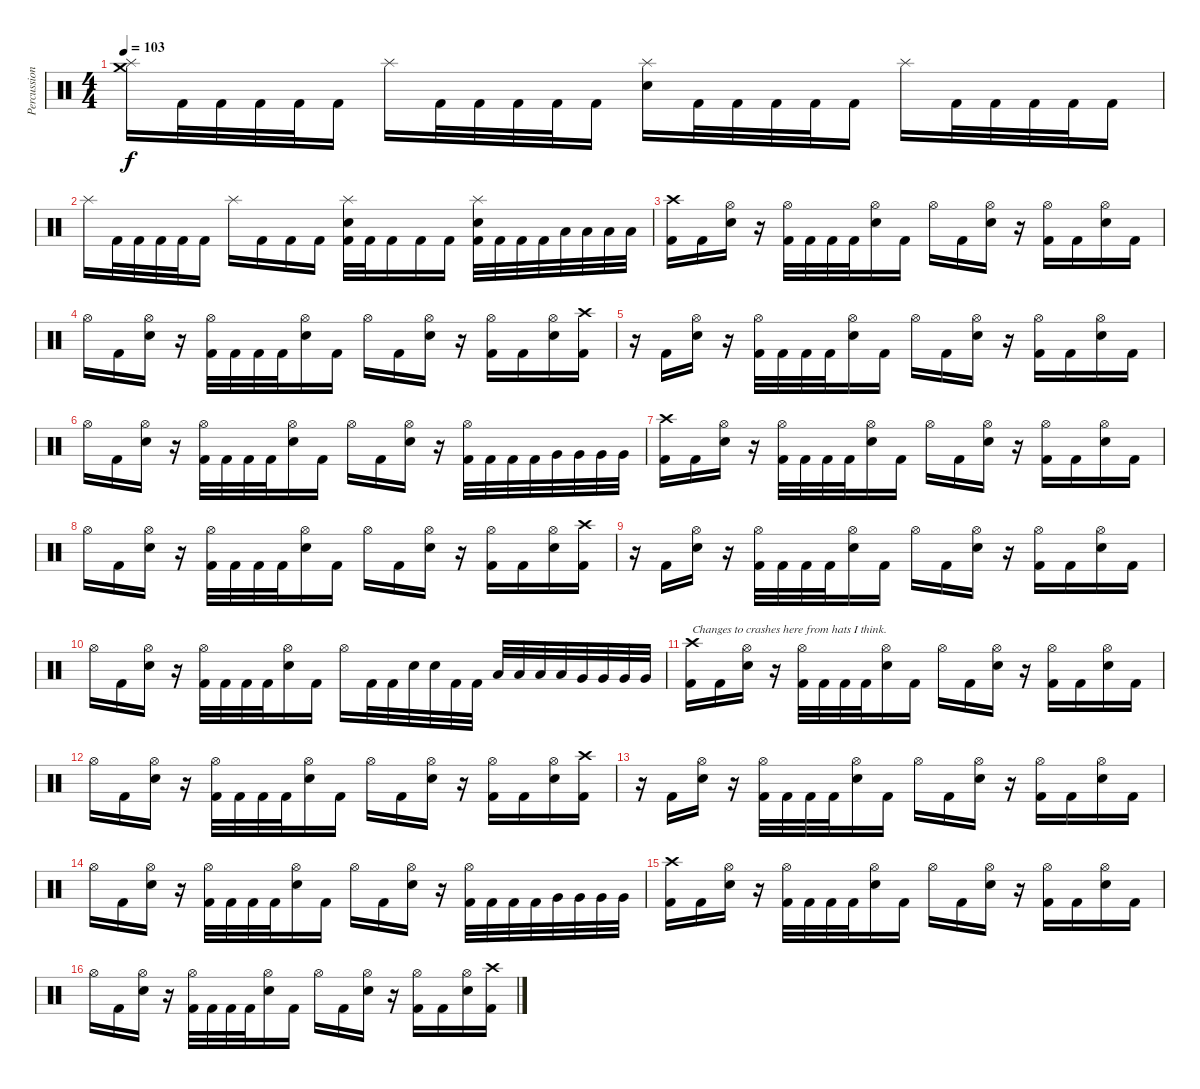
\track ("Percussion" "Percussion") {instrument percussion}
\staff {score}
\articulation defaults
\ts (4 4)
\tempo 103
\clef neutral
\ks c
("Splash (hit)" "Crash medium (hit)").16{dy f} "Kick (hit) 2".32 "Kick (hit) 2".32 "Kick (hit) 2".32 "Kick (hit) 2".32 "Kick (hit) 2".16 "Splash (hit)".16 "Kick (hit) 2".32 "Kick (hit) 2".32 "Kick (hit) 2".32 "Kick (hit) 2".32 "Kick (hit) 2".16 ("Splash (hit)" "Snare (hit) 2").16 "Kick (hit) 2".32 "Kick (hit) 2".32 "Kick (hit) 2".32 "Kick (hit) 2".32 "Kick (hit) 2".16 "Splash (hit)".16 "Kick (hit) 2".32 "Kick (hit) 2".32 "Kick (hit) 2".32 "Kick (hit) 2".32 "Kick (hit) 2".16 |
"Splash (hit)".16 "Kick (hit) 2".32 "Kick (hit) 2".32 "Kick (hit) 2".32 "Kick (hit) 2".32 "Kick (hit) 2".16 "Splash (hit)".16 "Kick (hit) 2".16 "Kick (hit) 2".16 "Kick (hit) 2".16 ("Splash (hit)" "Snare (hit) 2" "Kick (hit) 2").32 "Kick (hit) 2".32 "Kick (hit) 2".16 "Kick (hit) 2".16 "Kick (hit) 2".16 ("Splash (hit)" "Snare (hit) 2" "Kick (hit) 2").32 "Kick (hit) 2".32 "Kick (hit) 2".32 "Kick (hit) 2".32 "Low Tom (hit)".32 "Low Tom (hit)".32 "Low Tom (hit)".32 "Low Tom (hit)".32 |
("Crash high (hit)" "Kick (hit) 2").16 "Kick (hit) 2".16 ("Hi-Hat (open)" "Snare (hit) 2").16 r.16 ("Hi-Hat (open)" "Kick (hit) 2").32 "Kick (hit) 2".32 "Kick (hit) 2".32 "Kick (hit) 2".32 ("Hi-Hat (open)" "Snare (hit) 2").16 "Kick (hit) 2".16 "Hi-Hat (open)".16 "Kick (hit) 2".16 ("Hi-Hat (open)" "Snare (hit) 2").16 r.16 ("Hi-Hat (open)" "Kick (hit) 2").16 "Kick (hit) 2".16 ("Hi-Hat (open)" "Snare (hit) 2").16 "Kick (hit) 2".16 |
"Hi-Hat (open)".16 "Kick (hit) 2".16 ("Hi-Hat (open)" "Snare (hit) 2").16 r.16 ("Hi-Hat (open)" "Kick (hit) 2").32 "Kick (hit) 2".32 "Kick (hit) 2".32 "Kick (hit) 2".32 ("Hi-Hat (open)" "Snare (hit) 2").16 "Kick (hit) 2".16 "Hi-Hat (open)".16 "Kick (hit) 2".16 ("Hi-Hat (open)" "Snare (hit) 2").16 r.16 ("Hi-Hat (open)" "Kick (hit) 2").16 "Kick (hit) 2".16 ("Hi-Hat (open)" "Snare (hit) 2").16 ("Crash high (hit)" "Kick (hit) 2").16 |
r.16 "Kick (hit) 2".16 ("Hi-Hat (open)" "Snare (hit) 2").16 r.16 ("Hi-Hat (open)" "Kick (hit) 2").32 "Kick (hit) 2".32 "Kick (hit) 2".32 "Kick (hit) 2".32 ("Hi-Hat (open)" "Snare (hit) 2").16 "Kick (hit) 2".16 "Hi-Hat (open)".16 "Kick (hit) 2".16 ("Hi-Hat (open)" "Snare (hit) 2").16 r.16 ("Hi-Hat (open)" "Kick (hit) 2").16 "Kick (hit) 2".16 ("Hi-Hat (open)" "Snare (hit) 2").16 "Kick (hit) 2".16 |
"Hi-Hat (open)".16 "Kick (hit) 2".16 ("Hi-Hat (open)" "Snare (hit) 2").16 r.16 ("Hi-Hat (open)" "Kick (hit) 2").32 "Kick (hit) 2".32 "Kick (hit) 2".32 "Kick (hit) 2".32 ("Hi-Hat (open)" "Snare (hit) 2").16 "Kick (hit) 2".16 "Hi-Hat (open)".16 "Kick (hit) 2".16 ("Hi-Hat (open)" "Snare (hit) 2").16 r.16 ("Hi-Hat (open)" "Kick (hit) 2").32 "Kick (hit) 2".32 "Kick (hit) 2".32 "Kick (hit) 2".32 "Very Low Tom (hit)".32 "Very Low Tom (hit)".32 "Very Low Tom (hit)".32 "Very Low Tom (hit)".32 |
("Crash high (hit)" "Kick (hit) 2").16 "Kick (hit) 2".16 ("Hi-Hat (open)" "Snare (hit) 2").16 r.16 ("Hi-Hat (open)" "Kick (hit) 2").32 "Kick (hit) 2".32 "Kick (hit) 2".32 "Kick (hit) 2".32 ("Hi-Hat (open)" "Snare (hit) 2").16 "Kick (hit) 2".16 "Hi-Hat (open)".16 "Kick (hit) 2".16 ("Hi-Hat (open)" "Snare (hit) 2").16 r.16 ("Hi-Hat (open)" "Kick (hit) 2").16 "Kick (hit) 2".16 ("Hi-Hat (open)" "Snare (hit) 2").16 "Kick (hit) 2".16 |
"Hi-Hat (open)".16 "Kick (hit) 2".16 ("Hi-Hat (open)" "Snare (hit) 2").16 r.16 ("Hi-Hat (open)" "Kick (hit) 2").32 "Kick (hit) 2".32 "Kick (hit) 2".32 "Kick (hit) 2".32 ("Hi-Hat (open)" "Snare (hit) 2").16 "Kick (hit) 2".16 "Hi-Hat (open)".16 "Kick (hit) 2".16 ("Hi-Hat (open)" "Snare (hit) 2").16 r.16 ("Hi-Hat (open)" "Kick (hit) 2").16 "Kick (hit) 2".16 ("Hi-Hat (open)" "Snare (hit) 2").16 ("Crash high (hit)" "Kick (hit) 2").16 |
r.16 "Kick (hit) 2".16 ("Hi-Hat (open)" "Snare (hit) 2").16 r.16 ("Hi-Hat (open)" "Kick (hit) 2").32 "Kick (hit) 2".32 "Kick (hit) 2".32 "Kick (hit) 2".32 ("Hi-Hat (open)" "Snare (hit) 2").16 "Kick (hit) 2".16 "Hi-Hat (open)".16 "Kick (hit) 2".16 ("Hi-Hat (open)" "Snare (hit) 2").16 r.16 ("Hi-Hat (open)" "Kick (hit) 2").16 "Kick (hit) 2".16 ("Hi-Hat (open)" "Snare (hit) 2").16 "Kick (hit) 2".16 |
"Hi-Hat (open)".16 "Kick (hit) 2".16 ("Hi-Hat (open)" "Snare (hit) 2").16 r.16 ("Hi-Hat (open)" "Kick (hit) 2").32 "Kick (hit) 2".32 "Kick (hit) 2".32 "Kick (hit) 2".32 ("Hi-Hat (open)" "Snare (hit) 2").16 "Kick (hit) 2".16 "Hi-Hat (open)".16 "Kick (hit) 2".32 "Kick (hit) 2".32 "Snare (hit) 2".32 "Snare (hit) 2".32 "Kick (hit) 2".32 "Kick (hit) 2".32 "Low Tom (hit)".32 "Low Tom (hit)".32 "Low Tom (hit)".32 "Low Tom (hit)".32 "Very Low Tom (hit)".32 "Very Low Tom (hit)".32 "Very Low Tom (hit)".32 "Very Low Tom (hit)".32 |
("Crash high (hit)" "Kick (hit) 2").16{txt "Changes to crashes here from hats I think."} "Kick (hit) 2".16 ("Hi-Hat (open)" "Snare (hit) 2").16 r.16 ("Hi-Hat (open)" "Kick (hit) 2").32 "Kick (hit) 2".32 "Kick (hit) 2".32 "Kick (hit) 2".32 ("Hi-Hat (open)" "Snare (hit) 2").16 "Kick (hit) 2".16 "Hi-Hat (open)".16 "Kick (hit) 2".16 ("Hi-Hat (open)" "Snare (hit) 2").16 r.16 ("Hi-Hat (open)" "Kick (hit) 2").16 "Kick (hit) 2".16 ("Hi-Hat (open)" "Snare (hit) 2").16 "Kick (hit) 2".16 |
"Hi-Hat (open)".16 "Kick (hit) 2".16 ("Hi-Hat (open)" "Snare (hit) 2").16 r.16 ("Hi-Hat (open)" "Kick (hit) 2").32 "Kick (hit) 2".32 "Kick (hit) 2".32 "Kick (hit) 2".32 ("Hi-Hat (open)" "Snare (hit) 2").16 "Kick (hit) 2".16 "Hi-Hat (open)".16 "Kick (hit) 2".16 ("Hi-Hat (open)" "Snare (hit) 2").16 r.16 ("Hi-Hat (open)" "Kick (hit) 2").16 "Kick (hit) 2".16 ("Hi-Hat (open)" "Snare (hit) 2").16 ("Crash high (hit)" "Kick (hit) 2").16 |
r.16 "Kick (hit) 2".16 ("Hi-Hat (open)" "Snare (hit) 2").16 r.16 ("Hi-Hat (open)" "Kick (hit) 2").32 "Kick (hit) 2".32 "Kick (hit) 2".32 "Kick (hit) 2".32 ("Hi-Hat (open)" "Snare (hit) 2").16 "Kick (hit) 2".16 "Hi-Hat (open)".16 "Kick (hit) 2".16 ("Hi-Hat (open)" "Snare (hit) 2").16 r.16 ("Hi-Hat (open)" "Kick (hit) 2").16 "Kick (hit) 2".16 ("Hi-Hat (open)" "Snare (hit) 2").16 "Kick (hit) 2".16 |
"Hi-Hat (open)".16 "Kick (hit) 2".16 ("Hi-Hat (open)" "Snare (hit) 2").16 r.16 ("Hi-Hat (open)" "Kick (hit) 2").32 "Kick (hit) 2".32 "Kick (hit) 2".32 "Kick (hit) 2".32 ("Hi-Hat (open)" "Snare (hit) 2").16 "Kick (hit) 2".16 "Hi-Hat (open)".16 "Kick (hit) 2".16 ("Hi-Hat (open)" "Snare (hit) 2").16 r.16 ("Hi-Hat (open)" "Kick (hit) 2").32 "Kick (hit) 2".32 "Kick (hit) 2".32 "Kick (hit) 2".32 "Very Low Tom (hit)".32 "Very Low Tom (hit)".32 "Very Low Tom (hit)".32 "Very Low Tom (hit)".32 |
("Crash high (hit)" "Kick (hit) 2").16 "Kick (hit) 2".16 ("Hi-Hat (open)" "Snare (hit) 2").16 r.16 ("Hi-Hat (open)" "Kick (hit) 2").32 "Kick (hit) 2".32 "Kick (hit) 2".32 "Kick (hit) 2".32 ("Hi-Hat (open)" "Snare (hit) 2").16 "Kick (hit) 2".16 "Hi-Hat (open)".16 "Kick (hit) 2".16 ("Hi-Hat (open)" "Snare (hit) 2").16 r.16 ("Hi-Hat (open)" "Kick (hit) 2").16 "Kick (hit) 2".16 ("Hi-Hat (open)" "Snare (hit) 2").16 "Kick (hit) 2".16 |
"Hi-Hat (open)".16 "Kick (hit) 2".16 ("Hi-Hat (open)" "Snare (hit) 2").16 r.16 ("Hi-Hat (open)" "Kick (hit) 2").32 "Kick (hit) 2".32 "Kick (hit) 2".32 "Kick (hit) 2".32 ("Hi-Hat (open)" "Snare (hit) 2").16 "Kick (hit) 2".16 "Hi-Hat (open)".16 "Kick (hit) 2".16 ("Hi-Hat (open)" "Snare (hit) 2").16 r.16 ("Hi-Hat (open)" "Kick (hit) 2").16 "Kick (hit) 2".16 ("Hi-Hat (open)" "Snare (hit) 2").16 ("Crash high (hit)" "Kick (hit) 2").16
